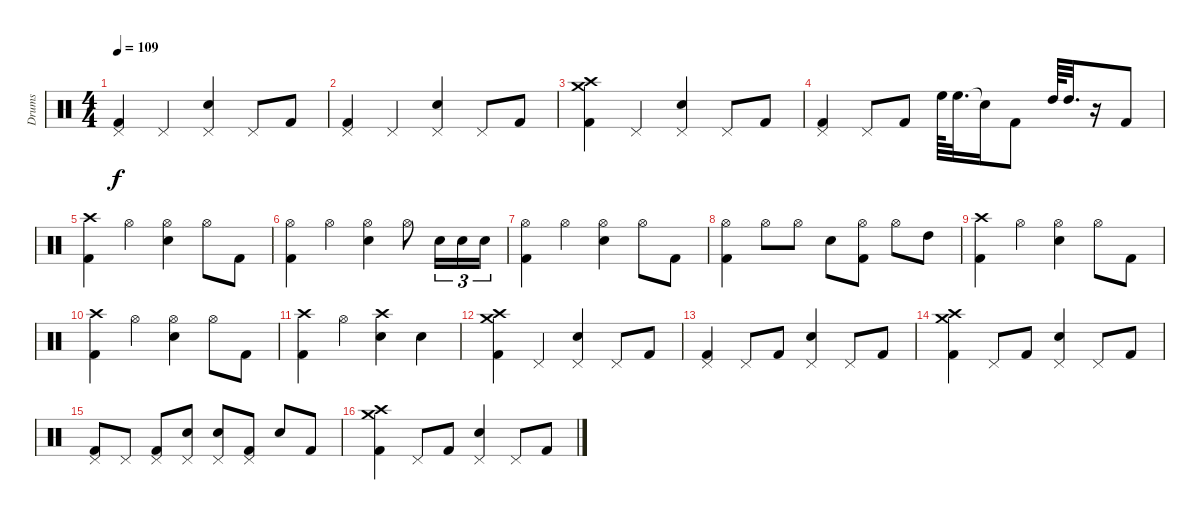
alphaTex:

\track ("Drums" "Drums") {instrument percussion}
\staff {score}
\articulation defaults
\ts (4 4)
\tempo 109
\clef neutral
\ks c
("Pedal Hi-Hat (hit)" "Kick (hit) 2").4{dy f} "Pedal Hi-Hat (hit)".4 ("Pedal Hi-Hat (hit)" "Electric Snare (hit)").4 "Pedal Hi-Hat (hit)".8 "Kick (hit) 2".8 |
("Pedal Hi-Hat (hit)" "Kick (hit) 2").4 "Pedal Hi-Hat (hit)".4 ("Pedal Hi-Hat (hit)" "Electric Snare (hit)").4 "Pedal Hi-Hat (hit)".8 "Kick (hit) 2".8 |
("Crash high (hit)" "Crash medium (hit)" "Kick (hit) 2").4 "Pedal Hi-Hat (hit)".4 ("Pedal Hi-Hat (hit)" "Electric Snare (hit)").4 "Pedal Hi-Hat (hit)".8 "Kick (hit) 2".8 |
("Pedal Hi-Hat (hit)" "Kick (hit) 2").4 "Pedal Hi-Hat (hit)".8 "Kick (hit) 2".8 "High Floor Tom (hit)".64 "High Floor Tom (hit)".32{d} "Snare (hit)"{t}.16 "Kick (hit) 2".8 "High Tom (hit)".64 "High Tom (hit)".32{d} r.16 "Kick (hit) 2".8 |
("Crash high (hit)" "Kick (hit) 2").4 "Hi-Hat (open)".4 ("Hi-Hat (open)" "Electric Snare (hit)").4 "Hi-Hat (open)".8 "Kick (hit) 2".8 |
("Hi-Hat (open)" "Kick (hit) 2").4 "Hi-Hat (open)".4 ("Hi-Hat (open)" "Electric Snare (hit)").4 "Hi-Hat (open)".8 "Electric Snare (hit)".16{tu (3 2)} "Electric Snare (hit)".16{tu (3 2)} "Electric Snare (hit)".16{tu (3 2)} |
("Hi-Hat (open)" "Kick (hit) 2").4 "Hi-Hat (open)".4 ("Hi-Hat (open)" "Electric Snare (hit)").4 "Hi-Hat (open)".8 "Kick (hit) 2".8 |
("Hi-Hat (open)" "Kick (hit) 2").4 "Hi-Hat (open)".8 "Hi-Hat (open)".8 "Electric Snare (hit)".8 ("Hi-Hat (open)" "Kick (hit) 2").8 "Hi-Hat (open)".8 "High Tom (hit)".8 |
("Crash high (hit)" "Kick (hit) 2").4 "Hi-Hat (open)".4 ("Hi-Hat (open)" "Electric Snare (hit)").4 "Hi-Hat (open)".8 "Kick (hit) 2".8 |
("Crash high (hit)" "Kick (hit) 2").4 "Hi-Hat (open)".4 ("Hi-Hat (open)" "Electric Snare (hit)").4 "Hi-Hat (open)".8 "Kick (hit) 2".8 |
("Crash high (hit)" "Kick (hit) 2").4 "Hi-Hat (open)".4 ("Crash high (hit)" "Electric Snare (hit)").4 "Electric Snare (hit)".4 |
("Crash high (hit)" "Crash medium (hit)" "Kick (hit) 2").4 "Pedal Hi-Hat (hit)".4 ("Pedal Hi-Hat (hit)" "Electric Snare (hit)").4 "Pedal Hi-Hat (hit)".8 "Kick (hit) 2".8 |
("Pedal Hi-Hat (hit)" "Kick (hit) 2").4 "Pedal Hi-Hat (hit)".8 "Kick (hit) 2".8 ("Pedal Hi-Hat (hit)" "Electric Snare (hit)").4 "Pedal Hi-Hat (hit)".8 "Kick (hit) 2".8 |
("Crash high (hit)" "Crash medium (hit)" "Kick (hit) 2").4 "Pedal Hi-Hat (hit)".8 "Kick (hit) 2".8 ("Pedal Hi-Hat (hit)" "Electric Snare (hit)").4 "Pedal Hi-Hat (hit)".8 "Kick (hit) 2".8 |
("Pedal Hi-Hat (hit)" "Kick (hit) 2").8 "Pedal Hi-Hat (hit)".8 ("Pedal Hi-Hat (hit)" "Kick (hit) 2").8 ("Pedal Hi-Hat (hit)" "Electric Snare (hit)").8 ("Pedal Hi-Hat (hit)" "Electric Snare (hit)").8 ("Pedal Hi-Hat (hit)" "Kick (hit) 2").8 "Electric Snare (hit)".8 "Kick (hit) 2".8 |
("Crash high (hit)" "Crash medium (hit)" "Kick (hit) 2").4 "Pedal Hi-Hat (hit)".8 "Kick (hit) 2".8 ("Pedal Hi-Hat (hit)" "Electric Snare (hit)").4 "Pedal Hi-Hat (hit)".8 "Kick (hit) 2".8
